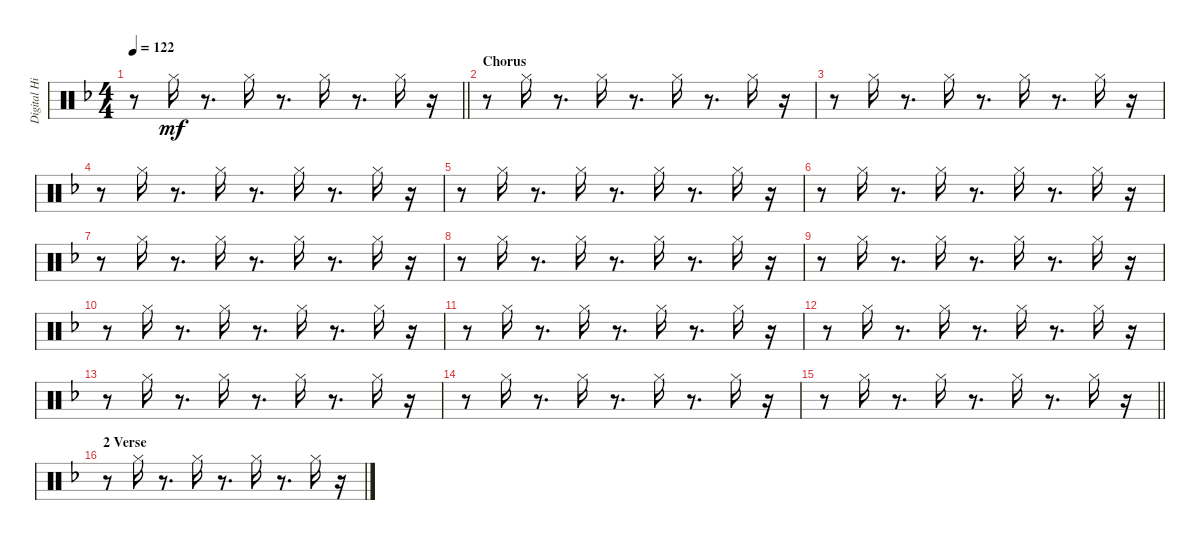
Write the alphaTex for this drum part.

\track ("Digital Hi-Hat (Stephen Morris)" "Digital Hi") {instrument percussion}
\staff {score}
\articulation defaults
\ts (4 4)
\tempo 122
\clef neutral
\barLineRight lightlight
\ks f
r.8{dy mf} "Hi-Hat (closed)".16 r.8{d} "Hi-Hat (closed)".16 r.8{d} "Hi-Hat (closed)".16 r.8{d} "Hi-Hat (closed)".16 r.16 |
\section ("" "Chorus")
r.8 "Hi-Hat (closed)".16 r.8{d} "Hi-Hat (closed)".16 r.8{d} "Hi-Hat (closed)".16 r.8{d} "Hi-Hat (closed)".16 r.16 |
r.8 "Hi-Hat (closed)".16 r.8{d} "Hi-Hat (closed)".16 r.8{d} "Hi-Hat (closed)".16 r.8{d} "Hi-Hat (closed)".16 r.16 |
r.8 "Hi-Hat (closed)".16 r.8{d} "Hi-Hat (closed)".16 r.8{d} "Hi-Hat (closed)".16 r.8{d} "Hi-Hat (closed)".16 r.16 |
r.8 "Hi-Hat (closed)".16 r.8{d} "Hi-Hat (closed)".16 r.8{d} "Hi-Hat (closed)".16 r.8{d} "Hi-Hat (closed)".16 r.16 |
r.8 "Hi-Hat (closed)".16 r.8{d} "Hi-Hat (closed)".16 r.8{d} "Hi-Hat (closed)".16 r.8{d} "Hi-Hat (closed)".16 r.16 |
r.8 "Hi-Hat (closed)".16 r.8{d} "Hi-Hat (closed)".16 r.8{d} "Hi-Hat (closed)".16 r.8{d} "Hi-Hat (closed)".16 r.16 |
r.8 "Hi-Hat (closed)".16 r.8{d} "Hi-Hat (closed)".16 r.8{d} "Hi-Hat (closed)".16 r.8{d} "Hi-Hat (closed)".16 r.16 |
r.8 "Hi-Hat (closed)".16 r.8{d} "Hi-Hat (closed)".16 r.8{d} "Hi-Hat (closed)".16 r.8{d} "Hi-Hat (closed)".16 r.16 |
r.8 "Hi-Hat (closed)".16 r.8{d} "Hi-Hat (closed)".16 r.8{d} "Hi-Hat (closed)".16 r.8{d} "Hi-Hat (closed)".16 r.16 |
r.8 "Hi-Hat (closed)".16 r.8{d} "Hi-Hat (closed)".16 r.8{d} "Hi-Hat (closed)".16 r.8{d} "Hi-Hat (closed)".16 r.16 |
r.8 "Hi-Hat (closed)".16 r.8{d} "Hi-Hat (closed)".16 r.8{d} "Hi-Hat (closed)".16 r.8{d} "Hi-Hat (closed)".16 r.16 |
r.8 "Hi-Hat (closed)".16 r.8{d} "Hi-Hat (closed)".16 r.8{d} "Hi-Hat (closed)".16 r.8{d} "Hi-Hat (closed)".16 r.16 |
r.8 "Hi-Hat (closed)".16 r.8{d} "Hi-Hat (closed)".16 r.8{d} "Hi-Hat (closed)".16 r.8{d} "Hi-Hat (closed)".16 r.16 |
\barLineRight lightlight
r.8 "Hi-Hat (closed)".16 r.8{d} "Hi-Hat (closed)".16 r.8{d} "Hi-Hat (closed)".16 r.8{d} "Hi-Hat (closed)".16 r.16 |
\section ("" "2 Verse ")
r.8 "Hi-Hat (closed)".16 r.8{d} "Hi-Hat (closed)".16 r.8{d} "Hi-Hat (closed)".16 r.8{d} "Hi-Hat (closed)".16 r.16
